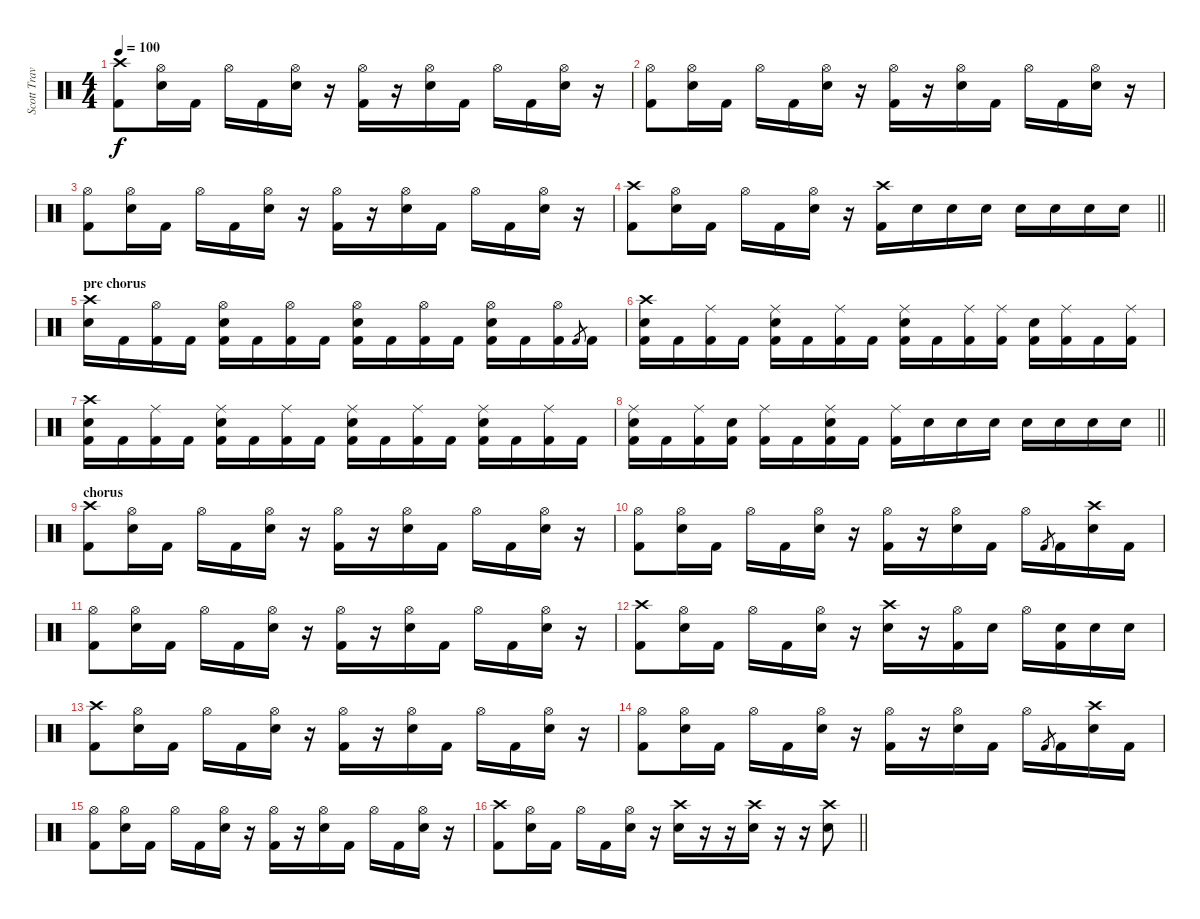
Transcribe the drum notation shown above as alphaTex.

\track ("Scott Travis" "Scott Trav") {instrument percussion}
\staff {score}
\articulation defaults
\ts (4 4)
\tempo 100
\clef neutral
\ks c
("Crash high (hit)" "Kick (hit) 2").8{dy f} ("Hi-Hat (open)" "Snare (hit) 2").16 "Kick (hit) 2".16 "Hi-Hat (open)".16 "Kick (hit) 2".16 ("Hi-Hat (open)" "Snare (hit) 2").16 r.16 ("Hi-Hat (open)" "Kick (hit) 2").16 r.16 ("Hi-Hat (open)" "Snare (hit) 2").16 "Kick (hit) 2".16 "Hi-Hat (open)".16 "Kick (hit) 2".16 ("Hi-Hat (open)" "Snare (hit) 2").16 r.16 |
("Hi-Hat (open)" "Kick (hit) 2").8 ("Hi-Hat (open)" "Snare (hit) 2").16 "Kick (hit) 2".16 "Hi-Hat (open)".16 "Kick (hit) 2".16 ("Hi-Hat (open)" "Snare (hit) 2").16 r.16 ("Hi-Hat (open)" "Kick (hit) 2").16 r.16 ("Hi-Hat (open)" "Snare (hit) 2").16 "Kick (hit) 2".16 "Hi-Hat (open)".16 "Kick (hit) 2".16 ("Hi-Hat (open)" "Snare (hit) 2").16 r.16 |
("Hi-Hat (open)" "Kick (hit) 2").8 ("Hi-Hat (open)" "Snare (hit) 2").16 "Kick (hit) 2".16 "Hi-Hat (open)".16 "Kick (hit) 2".16 ("Hi-Hat (open)" "Snare (hit) 2").16 r.16 ("Hi-Hat (open)" "Kick (hit) 2").16 r.16 ("Hi-Hat (open)" "Snare (hit) 2").16 "Kick (hit) 2".16 "Hi-Hat (open)".16 "Kick (hit) 2".16 ("Hi-Hat (open)" "Snare (hit) 2").16 r.16 |
\barLineRight lightlight
("Crash high (hit)" "Kick (hit) 2").8 ("Hi-Hat (open)" "Snare (hit) 2").16 "Kick (hit) 2".16 "Hi-Hat (open)".16 "Kick (hit) 2".16 ("Hi-Hat (open)" "Snare (hit) 2").16 r.16 ("Crash high (hit)" "Kick (hit) 2").16 "Snare (hit) 2".16 "Snare (hit) 2".16 "Snare (hit) 2".16 "Snare (hit) 2".16 "Snare (hit) 2".16 "Snare (hit) 2".16 "Snare (hit) 2".16 |
\section ("" "pre chorus")
("Crash high (hit)" "Snare (hit) 2").16 "Kick (hit) 2".16 ("Hi-Hat (open)" "Kick (hit) 2").16 "Kick (hit) 2".16 ("Hi-Hat (open)" "Snare (hit) 2" "Kick (hit) 2").16 "Kick (hit) 2".16 ("Hi-Hat (open)" "Kick (hit) 2").16 "Kick (hit) 2".16 ("Hi-Hat (open)" "Snare (hit) 2" "Kick (hit) 2").16 "Kick (hit) 2".16 ("Hi-Hat (open)" "Kick (hit) 2").16 "Kick (hit) 2".16 ("Hi-Hat (open)" "Snare (hit) 2" "Kick (hit) 2").16 "Kick (hit) 2".16 ("Hi-Hat (open)" "Kick (hit) 2").16 "Kick (hit) 2".8{gr} "Kick (hit) 2".16 |
("Crash high (hit)" "Snare (hit) 2" "Kick (hit) 2").16 "Kick (hit) 2".16 ("Ride (middle)" "Kick (hit) 2").16 "Kick (hit) 2".16 ("Ride (middle)" "Snare (hit) 2" "Kick (hit) 2").16 "Kick (hit) 2".16 ("Ride (middle)" "Kick (hit) 2").16 "Kick (hit) 2".16 ("Ride (middle)" "Snare (hit) 2" "Kick (hit) 2").16 "Kick (hit) 2".16 ("Ride (middle)" "Kick (hit) 2").16 ("Ride (middle)" "Kick (hit) 2").16 ("Snare (hit) 2" "Kick (hit) 2").16 ("Ride (middle)" "Kick (hit) 2").16 "Kick (hit) 2".16 ("Ride (middle)" "Kick (hit) 2").16 |
("Crash high (hit)" "Snare (hit) 2" "Kick (hit) 2").16 "Kick (hit) 2".16 ("Ride (middle)" "Kick (hit) 2").16 "Kick (hit) 2".16 ("Ride (middle)" "Snare (hit) 2" "Kick (hit) 2").16 "Kick (hit) 2".16 ("Ride (middle)" "Kick (hit) 2").16 "Kick (hit) 2".16 ("Ride (middle)" "Snare (hit) 2" "Kick (hit) 2").16 "Kick (hit) 2".16 ("Ride (middle)" "Kick (hit) 2").16 "Kick (hit) 2".16 ("Ride (middle)" "Snare (hit) 2" "Kick (hit) 2").16 "Kick (hit) 2".16 ("Ride (middle)" "Kick (hit) 2").16 "Kick (hit) 2".16 |
\barLineRight lightlight
("Ride (middle)" "Snare (hit) 2" "Kick (hit) 2").16 "Kick (hit) 2".16 ("Ride (middle)" "Kick (hit) 2").16 ("Snare (hit) 2" "Kick (hit) 2").16 ("Ride (middle)" "Kick (hit) 2").16 "Kick (hit) 2".16 ("Ride (middle)" "Snare (hit) 2" "Kick (hit) 2").16 "Kick (hit) 2".16 ("Ride (middle)" "Kick (hit) 2").16 "Snare (hit) 2".16 "Snare (hit) 2".16 "Snare (hit) 2".16 "Snare (hit) 2".16 "Snare (hit) 2".16 "Snare (hit) 2".16 "Snare (hit) 2".16 |
\section ("" "chorus")
("Crash high (hit)" "Kick (hit) 2").8 ("Hi-Hat (open)" "Snare (hit) 2").16 "Kick (hit) 2".16 "Hi-Hat (open)".16 "Kick (hit) 2".16 ("Hi-Hat (open)" "Snare (hit) 2").16 r.16 ("Hi-Hat (open)" "Kick (hit) 2").16 r.16 ("Hi-Hat (open)" "Snare (hit) 2").16 "Kick (hit) 2".16 "Hi-Hat (open)".16 "Kick (hit) 2".16 ("Hi-Hat (open)" "Snare (hit) 2").16 r.16 |
("Hi-Hat (open)" "Kick (hit) 2").8 ("Hi-Hat (open)" "Snare (hit) 2").16 "Kick (hit) 2".16 "Hi-Hat (open)".16 "Kick (hit) 2".16 ("Hi-Hat (open)" "Snare (hit) 2").16 r.16 ("Hi-Hat (open)" "Kick (hit) 2").16 r.16 ("Hi-Hat (open)" "Snare (hit) 2").16 "Kick (hit) 2".16 "Hi-Hat (open)".16 "Kick (hit) 2".8{gr} "Kick (hit) 2".16 ("Crash high (hit)" "Snare (hit) 2").16 "Kick (hit) 2".16 |
("Hi-Hat (open)" "Kick (hit) 2").8 ("Hi-Hat (open)" "Snare (hit) 2").16 "Kick (hit) 2".16 "Hi-Hat (open)".16 "Kick (hit) 2".16 ("Hi-Hat (open)" "Snare (hit) 2").16 r.16 ("Hi-Hat (open)" "Kick (hit) 2").16 r.16 ("Hi-Hat (open)" "Snare (hit) 2").16 "Kick (hit) 2".16 "Hi-Hat (open)".16 "Kick (hit) 2".16 ("Hi-Hat (open)" "Snare (hit) 2").16 r.16 |
("Crash high (hit)" "Kick (hit) 2").8 ("Hi-Hat (open)" "Snare (hit) 2").16 "Kick (hit) 2".16 "Hi-Hat (open)".16 "Kick (hit) 2".16 ("Hi-Hat (open)" "Snare (hit) 2").16 r.16 ("Crash high (hit)" "Snare (hit) 2").16 r.16 ("Hi-Hat (open)" "Kick (hit) 2").16 "Snare (hit) 2".16 "Hi-Hat (open)".16 ("Snare (hit) 2" "Kick (hit) 2").16 "Snare (hit) 2".16 "Snare (hit) 2".16 |
("Crash high (hit)" "Kick (hit) 2").8 ("Hi-Hat (open)" "Snare (hit) 2").16 "Kick (hit) 2".16 "Hi-Hat (open)".16 "Kick (hit) 2".16 ("Hi-Hat (open)" "Snare (hit) 2").16 r.16 ("Hi-Hat (open)" "Kick (hit) 2").16 r.16 ("Hi-Hat (open)" "Snare (hit) 2").16 "Kick (hit) 2".16 "Hi-Hat (open)".16 "Kick (hit) 2".16 ("Hi-Hat (open)" "Snare (hit) 2").16 r.16 |
("Hi-Hat (open)" "Kick (hit) 2").8 ("Hi-Hat (open)" "Snare (hit) 2").16 "Kick (hit) 2".16 "Hi-Hat (open)".16 "Kick (hit) 2".16 ("Hi-Hat (open)" "Snare (hit) 2").16 r.16 ("Hi-Hat (open)" "Kick (hit) 2").16 r.16 ("Hi-Hat (open)" "Snare (hit) 2").16 "Kick (hit) 2".16 "Hi-Hat (open)".16 "Kick (hit) 2".8{gr} "Kick (hit) 2".16 ("Crash high (hit)" "Snare (hit) 2").16 "Kick (hit) 2".16 |
("Hi-Hat (open)" "Kick (hit) 2").8 ("Hi-Hat (open)" "Snare (hit) 2").16 "Kick (hit) 2".16 "Hi-Hat (open)".16 "Kick (hit) 2".16 ("Hi-Hat (open)" "Snare (hit) 2").16 r.16 ("Hi-Hat (open)" "Kick (hit) 2").16 r.16 ("Hi-Hat (open)" "Snare (hit) 2").16 "Kick (hit) 2".16 "Hi-Hat (open)".16 "Kick (hit) 2".16 ("Hi-Hat (open)" "Snare (hit) 2").16 r.16 |
\barLineRight lightlight
("Crash high (hit)" "Kick (hit) 2").8 ("Hi-Hat (open)" "Snare (hit) 2").16 "Kick (hit) 2".16 "Hi-Hat (open)".16 "Kick (hit) 2".16 ("Hi-Hat (open)" "Snare (hit) 2").16 r.16 ("Crash high (hit)" "Snare (hit) 2").16 r.16 r.16 ("Crash high (hit)" "Snare (hit) 2").16 r.16 r.16 ("Crash high (hit)" "Snare (hit) 2").8
